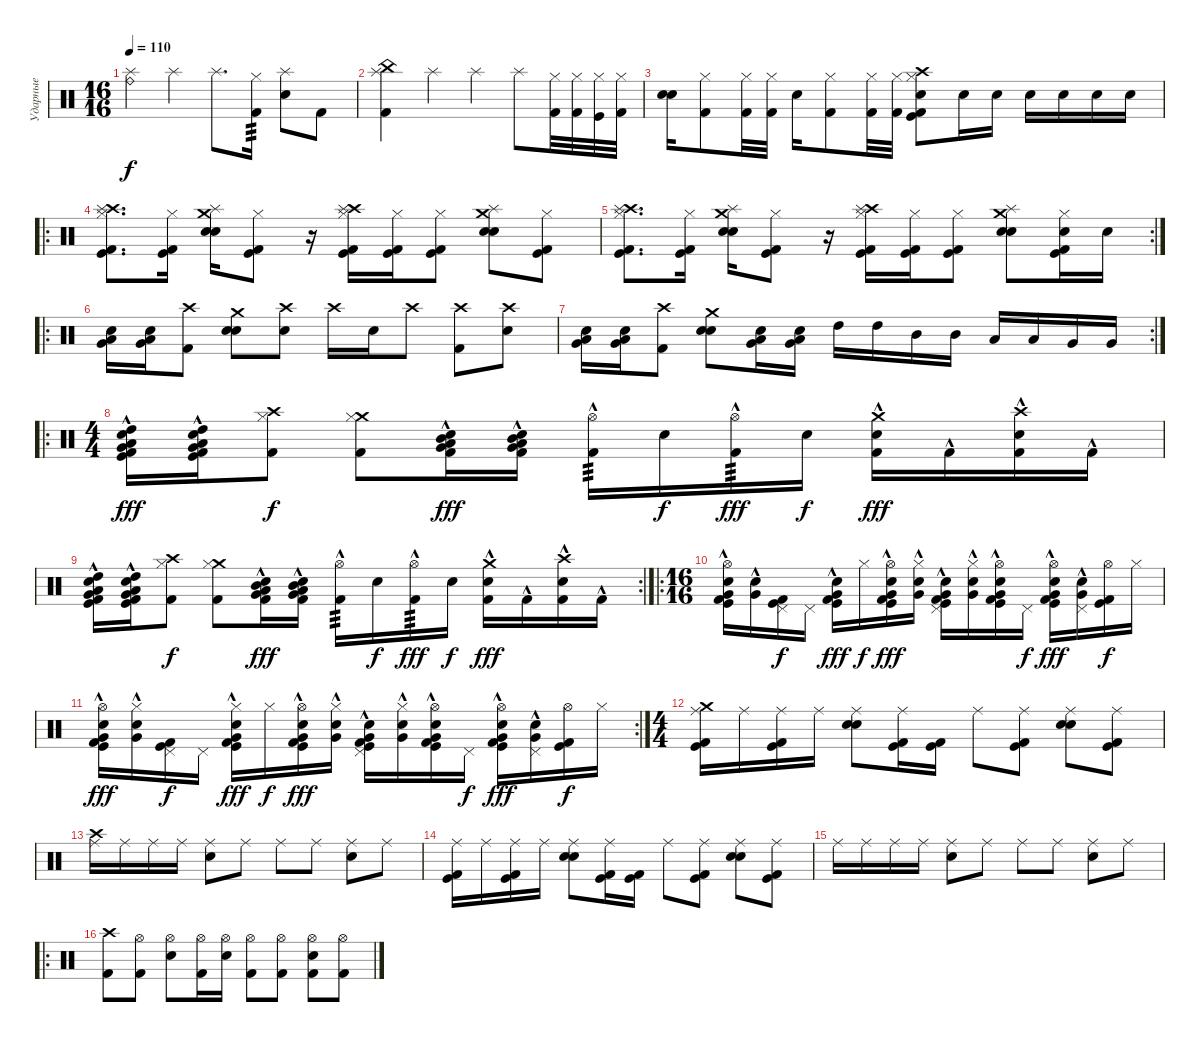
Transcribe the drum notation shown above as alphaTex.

\track ("Ударные" "Ударные") {instrument percussion}
\staff {score}
\articulation defaults
\ts (16 16)
\tempo 110
\clef neutral
\ks c
("Ride (bell)" "Splash (hit)").4{dy f} "Splash (hit)".4 "Splash (hit)".8{d} ("Hi-Hat (closed)" "Kick (hit) 2").16{tp 3} ("Splash (hit)" "Electric Snare (hit)").8 "Kick (hit) 2".8 |
("China (hit)" "Splash (hit)" "Kick (hit) 2").4 "Splash (hit)".4 "Splash (hit)".4 "Splash (hit)".8 ("Hi-Hat (closed)" "Kick (hit) 2").32 ("Hi-Hat (closed)" "Kick (hit) 2").32 ("Hi-Hat (closed)" "Kick (hit)").32 ("Hi-Hat (closed)" "Kick (hit) 2").32 |
("Electric Snare (hit)" "Snare (hit)").16 ("Hi-Hat (closed)" "Kick (hit) 2").8 ("Hi-Hat (closed)" "Kick (hit) 2").32 ("Hi-Hat (closed)" "Kick (hit) 2").32 "Electric Snare (hit)".16 ("Hi-Hat (closed)" "Kick (hit) 2").8 ("Kick (hit) 2" "Hi-Hat (closed)").32 ("Kick (hit) 2" "Hi-Hat (closed)").32 ("Crash high (hit)" "Electric Snare (hit)" "Hi-Hat (closed)" "Kick (hit)" "Kick (hit) 2").8 "Snare (hit) 2".16 "Snare (hit) 2".16 "Snare (hit) 2".16 "Snare (hit) 2".16 "Snare (hit) 2".16 "Snare (hit) 2".16 |
\ro
("Crash high (hit)" "Splash (hit)" "Hi-Hat (closed)" "Kick (hit)" "Kick (hit) 2").8{d} ("Hi-Hat (closed)" "Kick (hit)" "Kick (hit) 2").16 ("Crash medium (hit)" "Splash (hit)" "Snare (hit) 2" "Electric Snare (hit)").16 ("Hi-Hat (closed)" "Kick (hit)" "Kick (hit) 2").8 r.16 ("Crash high (hit)" "Splash (hit)" "Hi-Hat (closed)" "Kick (hit)" "Kick (hit) 2").16 ("Hi-Hat (closed)" "Kick (hit)" "Kick (hit) 2").16 ("Hi-Hat (closed)" "Kick (hit)" "Kick (hit) 2").8 ("Crash medium (hit)" "Splash (hit)" "Snare (hit) 2" "Electric Snare (hit)").8 ("Hi-Hat (closed)" "Kick (hit)" "Kick (hit) 2").8 |
\rc 2
("Crash high (hit)" "Splash (hit)" "Hi-Hat (closed)" "Kick (hit)" "Kick (hit) 2").8{d} ("Hi-Hat (closed)" "Kick (hit)" "Kick (hit) 2").16 ("Crash medium (hit)" "Splash (hit)" "Snare (hit) 2" "Electric Snare (hit)").16 ("Hi-Hat (closed)" "Kick (hit)" "Kick (hit) 2").8 r.16 ("Crash high (hit)" "Splash (hit)" "Hi-Hat (closed)" "Kick (hit)" "Kick (hit) 2").16 ("Hi-Hat (closed)" "Kick (hit)" "Kick (hit) 2").16 ("Hi-Hat (closed)" "Kick (hit)" "Kick (hit) 2").8 ("Crash medium (hit)" "Splash (hit)" "Snare (hit) 2" "Electric Snare (hit)").8 ("Snare (hit) 2" "Hi-Hat (closed)" "Kick (hit)" "Kick (hit) 2").16 "Snare (hit) 2".16 |
\ro
("Snare (hit) 2" "Very Low Tom (hit)" "Low Floor Tom (hit)").16 ("Snare (hit) 2" "Very Low Tom (hit)" "Low Floor Tom (hit)").16 ("Crash high (hit)" "Kick (hit) 2").8 ("Crash medium (hit)" "Snare (hit) 2" "Electric Snare (hit)").8 ("Crash high (hit)" "Electric Snare (hit)").8 "Crash high (hit)".16 "Electric Snare (hit)".16 "Crash high (hit)".8 ("Crash high (hit)" "Kick (hit) 2").8 ("Crash high (hit)" "Electric Snare (hit)").8 |
\rc 2
("Snare (hit) 2" "Very Low Tom (hit)" "Low Floor Tom (hit)").16 ("Snare (hit) 2" "Very Low Tom (hit)" "Low Floor Tom (hit)").16 ("Crash high (hit)" "Kick (hit) 2").8 ("Crash medium (hit)" "Snare (hit) 2" "Electric Snare (hit)").8 ("Snare (hit) 2" "Very Low Tom (hit)" "Low Floor Tom (hit)").16 ("Snare (hit) 2" "Very Low Tom (hit)" "Low Floor Tom (hit)").16 "High Tom (hit)".16 "High Tom (hit)".16 "Mid Tom (hit)".16 "Mid Tom (hit)".16 "Low Tom (hit)".16 "Low Tom (hit)".16 "Very Low Tom (hit)".16 "Very Low Tom (hit)".16 |
\ro
\ts (4 4)
("Kick (hit)" "High Tom (hit)" "Low Floor Tom (hit)" "Very Low Tom (hit)" "Snare (hit) 2" "Kick (hit) 2"{hac}).16{dy fff} ("Kick (hit)" "High Tom (hit)" "Low Floor Tom (hit)" "Very Low Tom (hit)" "Snare (hit) 2" "Kick (hit) 2"{hac}).16 ("Crash high (hit)" "Kick (hit) 2" "Hi-Hat (closed)").8{dy f} ("Crash medium (hit)" "Kick (hit) 2" "Hi-Hat (closed)").8 ("Mid Tom (hit)" "Low Floor Tom (hit)" "Very Low Tom (hit)" "Snare (hit) 2" "Kick (hit) 2"{hac}).16{dy fff} ("Mid Tom (hit)" "Low Floor Tom (hit)" "Very Low Tom (hit)" "Snare (hit) 2" "Kick (hit) 2"{hac}).16 ("Hi-Hat (open)" "Kick (hit) 2"{hac}).16{tp 3} "Electric Snare (hit)".16{dy f} ("Hi-Hat (open)" "Kick (hit) 2"{hac}).16{tp 3 dy fff} "Electric Snare (hit)".16{dy f} ("Crash medium (hit)" "Electric Snare (hit)" "Kick (hit) 2"{hac}).16{dy fff} "Kick (hit) 2"{hac}.16 ("Crash high (hit)" "Electric Snare (hit)" "Kick (hit) 2"{hac}).16 "Kick (hit) 2"{hac}.16 |
\rc 2
("Kick (hit)" "High Tom (hit)" "Low Floor Tom (hit)" "Very Low Tom (hit)" "Snare (hit) 2" "Kick (hit) 2"{hac}).16 ("Kick (hit)" "High Tom (hit)" "Low Floor Tom (hit)" "Very Low Tom (hit)" "Snare (hit) 2" "Kick (hit) 2"{hac}).16 ("Crash high (hit)" "Kick (hit) 2" "Hi-Hat (closed)").8{dy f} ("Crash medium (hit)" "Kick (hit) 2" "Hi-Hat (closed)").8 ("Mid Tom (hit)" "Low Floor Tom (hit)" "Very Low Tom (hit)" "Snare (hit) 2" "Kick (hit) 2"{hac}).16{dy fff} ("Mid Tom (hit)" "Low Floor Tom (hit)" "Very Low Tom (hit)" "Snare (hit) 2" "Kick (hit) 2"{hac}).16 ("Hi-Hat (open)" "Kick (hit) 2"{hac}).16{tp 3} "Electric Snare (hit)".16{dy f} ("Hi-Hat (open)" "Kick (hit) 2"{hac}).16{tp 3 dy fff} "Electric Snare (hit)".16{dy f} ("Crash medium (hit)" "Electric Snare (hit)" "Kick (hit) 2"{hac}).16{dy fff} "Kick (hit) 2"{hac}.16 ("Crash high (hit)" "Electric Snare (hit)" "Kick (hit) 2"{hac}).16 "Kick (hit) 2"{hac}.16 |
\ro
\ts (16 16)
("Hi-Hat (open)" "Snare (hit) 2" "Very Low Tom (hit)"{hac} "Kick (hit) 2" "Kick (hit)").16 ("Snare (hit) 2" "Very Low Tom (hit)"{hac}).16 ("Pedal Hi-Hat (hit)" "Kick (hit) 2" "Kick (hit)").16{dy f} "Pedal Hi-Hat (hit)".16 ("Snare (hit) 2" "Very Low Tom (hit)"{hac} "Kick (hit) 2" "Kick (hit)").16{dy fff} "Hi-Hat (closed)".16{dy f} ("Hi-Hat (open)" "Very Low Tom (hit)"{hac} "Snare (hit) 2" "Kick (hit) 2" "Kick (hit)").16{dy fff} ("Hi-Hat (closed)" "Snare (hit) 2" "Very Low Tom (hit)"{hac}).16 ("Pedal Hi-Hat (hit)" "Snare (hit) 2" "Very Low Tom (hit)"{hac} "Kick (hit) 2" "Kick (hit)").16 ("Hi-Hat (closed)" "Snare (hit) 2" "Very Low Tom (hit)"{hac}).16 ("Hi-Hat (open)" "Snare (hit) 2" "Very Low Tom (hit)"{hac} "Kick (hit) 2" "Kick (hit)").16 "Pedal Hi-Hat (hit)".16{dy f} ("Hi-Hat (open)" "Snare (hit) 2" "Very Low Tom (hit)"{hac} "Kick (hit) 2" "Kick (hit)").16{dy fff} ("Pedal Hi-Hat (hit)" "Snare (hit) 2" "Very Low Tom (hit)"{hac}).16 ("Hi-Hat (open)" "Kick (hit) 2" "Kick (hit)").16{dy f} "Hi-Hat (closed)".16 |
\rc 2
("Hi-Hat (open)" "Snare (hit) 2" "Very Low Tom (hit)"{hac} "Kick (hit) 2" "Kick (hit)").16{dy fff} ("Hi-Hat (closed)" "Snare (hit) 2" "Very Low Tom (hit)"{hac}).16 ("Pedal Hi-Hat (hit)" "Kick (hit) 2" "Kick (hit)").16{dy f} "Pedal Hi-Hat (hit)".16 ("Hi-Hat (closed)" "Snare (hit) 2" "Very Low Tom (hit)"{hac} "Kick (hit) 2" "Kick (hit)").16{dy fff} "Hi-Hat (closed)".16{dy f} ("Hi-Hat (open)" "Very Low Tom (hit)"{hac} "Snare (hit) 2" "Kick (hit) 2" "Kick (hit)").16{dy fff} ("Hi-Hat (closed)" "Snare (hit) 2" "Very Low Tom (hit)"{hac}).16 ("Pedal Hi-Hat (hit)" "Snare (hit) 2" "Very Low Tom (hit)"{hac} "Kick (hit) 2" "Kick (hit)").16 ("Hi-Hat (closed)" "Snare (hit) 2" "Very Low Tom (hit)"{hac}).16 ("Hi-Hat (open)" "Snare (hit) 2" "Very Low Tom (hit)"{hac} "Kick (hit) 2" "Kick (hit)").16 "Pedal Hi-Hat (hit)".16{dy f} ("Hi-Hat (open)" "Snare (hit) 2" "Very Low Tom (hit)"{hac} "Kick (hit) 2" "Kick (hit)").16{dy fff} ("Pedal Hi-Hat (hit)" "Snare (hit) 2" "Very Low Tom (hit)"{hac}).16 ("Hi-Hat (open)" "Kick (hit) 2" "Kick (hit)").16{dy f} "Hi-Hat (closed)".16 |
\ts (4 4)
("Crash medium (hit)" "Ride (middle)" "Kick (hit)" "Kick (hit) 2").16 "Ride (middle)".16 ("Ride (middle)" "Kick (hit)" "Kick (hit) 2").16 "Ride (middle)".16 ("Ride (middle)" "Electric Snare (hit)" "Snare (hit) 2").8 ("Ride (middle)" "Kick (hit)" "Kick (hit) 2").16 ("Kick (hit)" "Kick (hit) 2").16 "Ride (middle)".8 ("Ride (middle)" "Kick (hit)" "Kick (hit) 2").8 ("Ride (middle)" "Electric Snare (hit)" "Snare (hit) 2").8 ("Ride (middle)" "Kick (hit)" "Kick (hit) 2").8 |
("Crash high (hit)" "Ride (middle)").16 "Ride (middle)".16 "Ride (middle)".16 "Ride (middle)".16 ("Ride (middle)" "Electric Snare (hit)").8 "Ride (middle)".8 "Ride (middle)".8 "Ride (middle)".8 ("Ride (middle)" "Electric Snare (hit)").8 "Ride (middle)".8 |
("Ride (middle)" "Kick (hit)" "Kick (hit) 2").16 "Ride (middle)".16 ("Ride (middle)" "Kick (hit)" "Kick (hit) 2").16 "Ride (middle)".16 ("Ride (middle)" "Electric Snare (hit)" "Snare (hit) 2").8 ("Ride (middle)" "Kick (hit)" "Kick (hit) 2").16 ("Kick (hit)" "Kick (hit) 2").16 "Ride (middle)".8 ("Ride (middle)" "Kick (hit)" "Kick (hit) 2").8 ("Ride (middle)" "Electric Snare (hit)" "Snare (hit) 2").8 ("Ride (middle)" "Kick (hit)" "Kick (hit) 2").8 |
"Ride (middle)".16 "Ride (middle)".16 "Ride (middle)".16 "Ride (middle)".16 ("Ride (middle)" "Electric Snare (hit)").8 "Ride (middle)".8 "Ride (middle)".8 "Ride (middle)".8 ("Ride (middle)" "Electric Snare (hit)").8 "Ride (middle)".8 |
\ro
("Crash high (hit)" "Kick (hit) 2").8 ("Hi-Hat (open)" "Kick (hit) 2").8 ("Hi-Hat (open)" "Snare (hit) 2").8 ("Hi-Hat (open)" "Kick (hit) 2").16 ("Hi-Hat (open)" "Snare (hit) 2").16 ("Hi-Hat (open)" "Kick (hit) 2").8 ("Hi-Hat (open)" "Kick (hit) 2").8 ("Hi-Hat (open)" "Snare (hit) 2" "Kick (hit) 2").8 ("Hi-Hat (open)" "Kick (hit) 2").8
